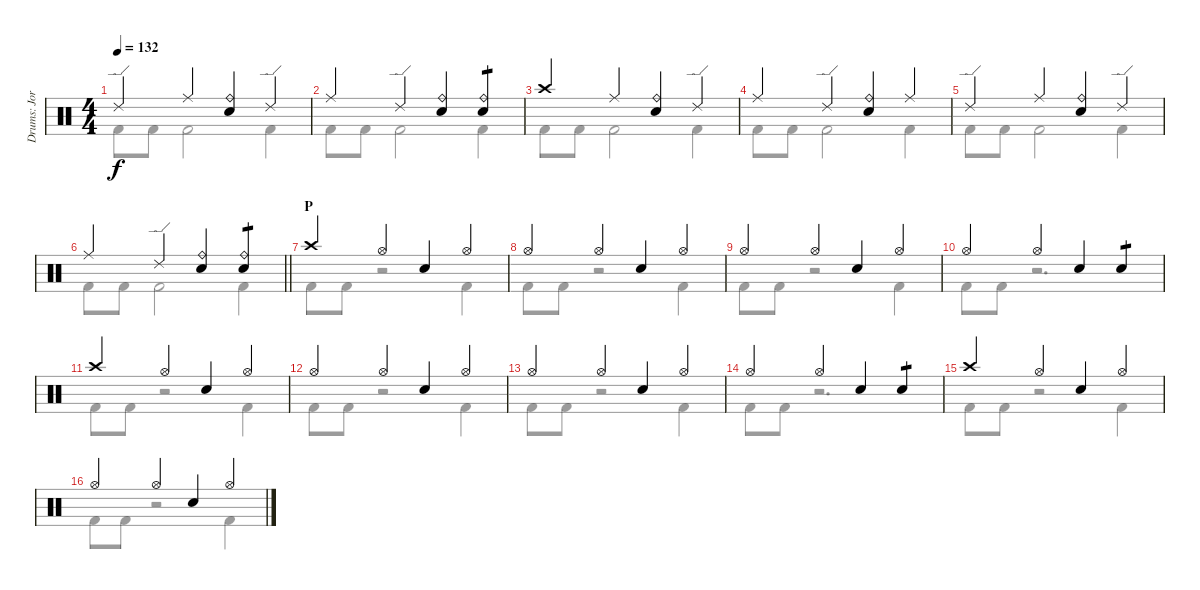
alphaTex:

\track ("Drums: Jorg" "Drums: Jor") {instrument percussion}
\staff {score}
\articulation defaults
\voice
\ts (4 4)
\tempo 132
\clef neutral
\ks c "Ride (edge) 2".4{dy f} "Ride (middle)".4
("Ride (bell)" "Snare (hit) 2").4 "Ride (edge) 2".4 |
"Ride (middle)".4 "Ride (edge) 2".4 ("Ride (bell)" "Snare (hit) 2").4 ("Ride (bell)" "Snare (hit) 2").4{tp 1} |
"Crash high (hit)".4 "Ride (middle)".4 ("Ride (bell)" "Snare (hit) 2").4 "Ride (edge) 2".4 |
"Ride (middle)".4 "Ride (edge) 2".4 ("Ride (bell)" "Snare (hit) 2").4 "Ride (middle)".4 |
"Ride (edge) 2".4 "Ride (middle)".4 ("Ride (bell)" "Snare (hit) 2").4 "Ride (edge) 2".4 |
\barLineRight lightlight "Ride (middle)".4 "Ride (edge) 2".4
("Ride (bell)" "Snare (hit) 2").4 ("Ride (bell)" "Snare (hit) 2").4{tp 1} |
\section ("" "P")
"Crash high (hit)".4 "Hi-Hat (open)".4 "Snare (hit) 2".4 "Hi-Hat (open)".4 |
"Hi-Hat (open)".4 "Hi-Hat (open)".4 "Snare (hit) 2".4 "Hi-Hat (open)".4 |
"Hi-Hat (open)".4 "Hi-Hat (open)".4 "Snare (hit) 2".4 "Hi-Hat (open)".4 |
"Hi-Hat (open)".4 "Hi-Hat (open)".4 "Snare (hit) 2".4 "Snare (hit) 2".4{tp 1} |
"Crash high (hit)".4 "Hi-Hat (open)".4 "Snare (hit) 2".4 "Hi-Hat (open)".4 |
"Hi-Hat (open)".4 "Hi-Hat (open)".4 "Snare (hit) 2".4 "Hi-Hat (open)".4 |
"Hi-Hat (open)".4 "Hi-Hat (open)".4 "Snare (hit) 2".4 "Hi-Hat (open)".4 |
"Hi-Hat (open)".4 "Hi-Hat (open)".4 "Snare (hit) 2".4 "Snare (hit) 2".4{tp 1} |
"Crash high (hit)".4 "Hi-Hat (open)".4 "Snare (hit) 2".4 "Hi-Hat (open)".4 |
"Hi-Hat (open)".4 "Hi-Hat (open)".4 "Snare (hit) 2".4 "Hi-Hat (open)".4
\voice
\clef neutral
\ottava regular
\simile none
\ks c "Kick (hit) 2".8{dy f} "Kick (hit) 2".8 "Kick (hit) 2".2 "Kick (hit) 2".4
|
"Kick (hit) 2".8 "Kick (hit) 2".8 "Kick (hit) 2".2 "Kick (hit) 2".4 |
"Kick (hit) 2".8 "Kick (hit) 2".8 "Kick (hit) 2".2 "Kick (hit) 2".4 |
"Kick (hit) 2".8 "Kick (hit) 2".8 "Kick (hit) 2".2 "Kick (hit) 2".4 |
"Kick (hit) 2".8 "Kick (hit) 2".8 "Kick (hit) 2".2 "Kick (hit) 2".4 |
\barLineRight lightlight "Kick (hit) 2".8 "Kick (hit) 2".8 "Kick (hit) 2".2 "Kick (hit) 2".4
|
"Kick (hit) 2".8 "Kick (hit) 2".8 r.2 "Kick (hit) 2".4 |
"Kick (hit) 2".8 "Kick (hit) 2".8 r.2 "Kick (hit) 2".4 |
"Kick (hit) 2".8 "Kick (hit) 2".8 r.2 "Kick (hit) 2".4 |
"Kick (hit) 2".8 "Kick (hit) 2".8 r.2{d} |
"Kick (hit) 2".8 "Kick (hit) 2".8 r.2 "Kick (hit) 2".4 |
"Kick (hit) 2".8 "Kick (hit) 2".8 r.2 "Kick (hit) 2".4 |
"Kick (hit) 2".8 "Kick (hit) 2".8 r.2 "Kick (hit) 2".4 |
"Kick (hit) 2".8 "Kick (hit) 2".8 r.2{d} |
"Kick (hit) 2".8 "Kick (hit) 2".8 r.2 "Kick (hit) 2".4 |
"Kick (hit) 2".8 "Kick (hit) 2".8 r.2 "Kick (hit) 2".4
